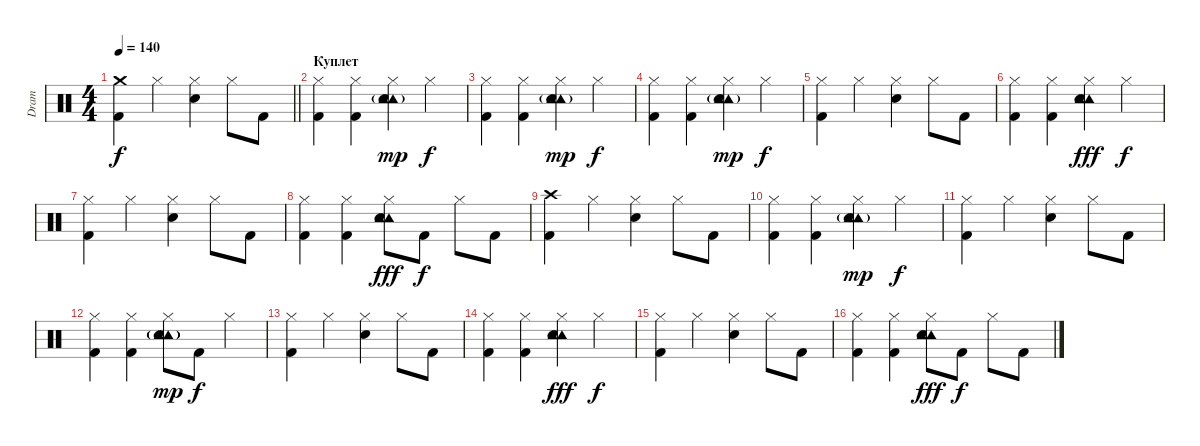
\track ("Dram" "Dram") {instrument percussion}
\staff {score}
\articulation defaults
\ts (4 4)
\tempo 140
\clef neutral
\barLineRight lightlight
\ks c
("Crash medium (hit)" "Kick (hit) 2").4{dy f} "Hi-Hat (closed)".4 ("Hi-Hat (closed)" "Snare (hit) 2").4 "Hi-Hat (closed)".8 "Kick (hit) 2".8 |
\section ("" "Куплет")
("Kick (hit) 2" "Hi-Hat (closed)").4 ("Kick (hit) 2" "Hi-Hat (closed)").4 ("Tambourine (hit)"{g} "Tambourine (hit)"{g} "Snare (hit) 2" "Hi-Hat (closed)").4{dy mp} "Hi-Hat (closed)".4{dy f} |
("Kick (hit) 2" "Hi-Hat (closed)").4 ("Kick (hit) 2" "Hi-Hat (closed)").4 ("Tambourine (hit)"{g} "Tambourine (hit)"{g} "Snare (hit) 2" "Hi-Hat (closed)").4{dy mp} "Hi-Hat (closed)".4{dy f} |
("Kick (hit) 2" "Hi-Hat (closed)").4 ("Kick (hit) 2" "Hi-Hat (closed)").4 ("Tambourine (hit)"{g} "Tambourine (hit)"{g} "Snare (hit) 2" "Hi-Hat (closed)").4{dy mp} "Hi-Hat (closed)".4{dy f} |
("Kick (hit) 2" "Hi-Hat (closed)").4 "Hi-Hat (closed)".4 ("Hi-Hat (closed)" "Snare (hit) 2").4 "Hi-Hat (closed)".8 "Kick (hit) 2".8 |
("Kick (hit) 2" "Hi-Hat (closed)").4 ("Kick (hit) 2" "Hi-Hat (closed)").4 ("Tambourine (hit)" "Snare (hit) 2" "Tambourine (hit)" "Hi-Hat (closed)").4{dy fff} "Hi-Hat (closed)".4{dy f} |
("Hi-Hat (closed)" "Kick (hit) 2").4 "Hi-Hat (closed)".4 ("Snare (hit) 2" "Hi-Hat (closed)").4 "Hi-Hat (closed)".8 "Kick (hit) 2".8 |
("Kick (hit) 2" "Hi-Hat (closed)").4 ("Hi-Hat (closed)" "Kick (hit) 2").4 ("Tambourine (hit)" "Hi-Hat (closed)" "Tambourine (hit)" "Snare (hit) 2").8{dy fff} "Kick (hit) 2".8{dy f} "Hi-Hat (closed)".8 "Kick (hit) 2".8 |
("Kick (hit) 2" "Crash high (hit)").4 "Hi-Hat (closed)".4 ("Hi-Hat (closed)" "Snare (hit) 2").4 "Hi-Hat (closed)".8 "Kick (hit) 2".8 |
("Kick (hit) 2" "Hi-Hat (closed)").4 ("Hi-Hat (closed)" "Kick (hit) 2").4 ("Tambourine (hit)"{g} "Tambourine (hit)"{g} "Hi-Hat (closed)" "Snare (hit) 2").4{dy mp} "Hi-Hat (closed)".4{dy f} |
("Kick (hit) 2" "Hi-Hat (closed)").4 "Hi-Hat (closed)".4 ("Hi-Hat (closed)" "Snare (hit) 2").4 "Hi-Hat (closed)".8 "Kick (hit) 2".8 |
("Hi-Hat (closed)" "Kick (hit) 2").4 ("Kick (hit) 2" "Hi-Hat (closed)").4 ("Tambourine (hit)"{g} "Snare (hit) 2" "Hi-Hat (closed)" "Tambourine (hit)"{g}).8{dy mp} "Kick (hit) 2".8{dy f} "Hi-Hat (closed)".4 |
("Hi-Hat (closed)" "Kick (hit) 2").4 "Hi-Hat (closed)".4 ("Hi-Hat (closed)" "Snare (hit) 2").4 "Hi-Hat (closed)".8 "Kick (hit) 2".8 |
("Hi-Hat (closed)" "Kick (hit) 2").4 ("Kick (hit) 2" "Hi-Hat (closed)").4 ("Hi-Hat (closed)" "Tambourine (hit)" "Snare (hit) 2" "Tambourine (hit)").4{dy fff} "Hi-Hat (closed)".4{dy f} |
("Kick (hit) 2" "Hi-Hat (closed)").4 "Hi-Hat (closed)".4 ("Hi-Hat (closed)" "Snare (hit) 2").4 "Hi-Hat (closed)".8 "Kick (hit) 2".8 |
("Hi-Hat (closed)" "Kick (hit) 2").4 ("Hi-Hat (closed)" "Kick (hit) 2").4 ("Tambourine (hit)" "Tambourine (hit)" "Hi-Hat (closed)" "Snare (hit) 2").8{dy fff} "Kick (hit) 2".8{dy f} "Hi-Hat (closed)".8 "Kick (hit) 2".8
